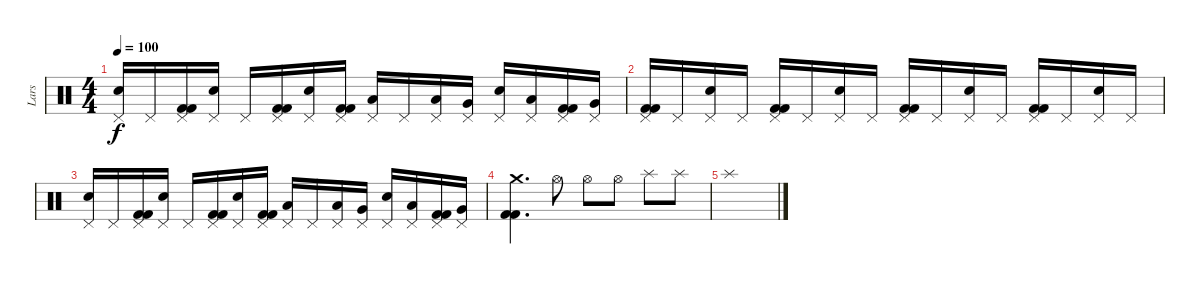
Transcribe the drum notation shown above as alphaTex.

\track ("Lars" "Lars") {instrument percussion}
\staff {score}
\articulation defaults
\ts (4 4)
\tempo 100
\clef neutral
\ks c
("Electric Snare (hit)" "Pedal Hi-Hat (hit)").16{dy f} "Pedal Hi-Hat (hit)".16 ("Kick (hit) 2" "Kick (hit) 2" "Pedal Hi-Hat (hit)").16 ("Electric Snare (hit)" "Pedal Hi-Hat (hit)").16 "Pedal Hi-Hat (hit)".16 ("Kick (hit) 2" "Kick (hit) 2" "Pedal Hi-Hat (hit)").16 ("Electric Snare (hit)" "Pedal Hi-Hat (hit)").16 ("Kick (hit) 2" "Kick (hit) 2" "Pedal Hi-Hat (hit)").16 ("Low Tom (hit)" "Pedal Hi-Hat (hit)").16 "Pedal Hi-Hat (hit)".16 ("Low Tom (hit)" "Pedal Hi-Hat (hit)").16 ("Very Low Tom (hit)" "Pedal Hi-Hat (hit)").16 ("Electric Snare (hit)" "Pedal Hi-Hat (hit)").16 ("Low Floor Tom (hit)" "Pedal Hi-Hat (hit)").16 ("Kick (hit) 2" "Kick (hit) 2" "Pedal Hi-Hat (hit)").16 ("Very Low Tom (hit)" "Pedal Hi-Hat (hit)").16 |
("Kick (hit) 2" "Kick (hit) 2" "Pedal Hi-Hat (hit)").16 "Pedal Hi-Hat (hit)".16 ("Electric Snare (hit)" "Pedal Hi-Hat (hit)").16 "Pedal Hi-Hat (hit)".16 ("Kick (hit) 2" "Kick (hit) 2" "Pedal Hi-Hat (hit)").16 "Pedal Hi-Hat (hit)".16 ("Electric Snare (hit)" "Pedal Hi-Hat (hit)").16 "Pedal Hi-Hat (hit)".16 ("Kick (hit) 2" "Kick (hit) 2" "Pedal Hi-Hat (hit)").16 "Pedal Hi-Hat (hit)".16 ("Electric Snare (hit)" "Pedal Hi-Hat (hit)").16 "Pedal Hi-Hat (hit)".16 ("Kick (hit) 2" "Kick (hit) 2" "Pedal Hi-Hat (hit)").16 "Pedal Hi-Hat (hit)".16 ("Electric Snare (hit)" "Pedal Hi-Hat (hit)").16 "Pedal Hi-Hat (hit)".16 |
("Electric Snare (hit)" "Pedal Hi-Hat (hit)").16 "Pedal Hi-Hat (hit)".16 ("Kick (hit) 2" "Kick (hit) 2" "Pedal Hi-Hat (hit)").16 ("Electric Snare (hit)" "Pedal Hi-Hat (hit)").16 "Pedal Hi-Hat (hit)".16 ("Kick (hit) 2" "Kick (hit) 2" "Pedal Hi-Hat (hit)").16 ("Electric Snare (hit)" "Pedal Hi-Hat (hit)").16 ("Kick (hit) 2" "Kick (hit) 2" "Pedal Hi-Hat (hit)").16 ("Low Tom (hit)" "Pedal Hi-Hat (hit)").16 "Pedal Hi-Hat (hit)".16 ("Low Tom (hit)" "Pedal Hi-Hat (hit)").16 ("Very Low Tom (hit)" "Pedal Hi-Hat (hit)").16 ("Electric Snare (hit)" "Pedal Hi-Hat (hit)").16 ("Low Floor Tom (hit)" "Pedal Hi-Hat (hit)").16 ("Kick (hit) 2" "Kick (hit) 2" "Pedal Hi-Hat (hit)").16 ("Very Low Tom (hit)" "Pedal Hi-Hat (hit)").16 |
("Kick (hit) 2" "Kick (hit) 2" "Crash medium (hit)").4{d} "Hi-Hat (open)".8 "Hi-Hat (open)".8 "Hi-Hat (open)".8 "Splash (hit)".8 "Splash (hit)".8 |
"Splash (hit)".1
